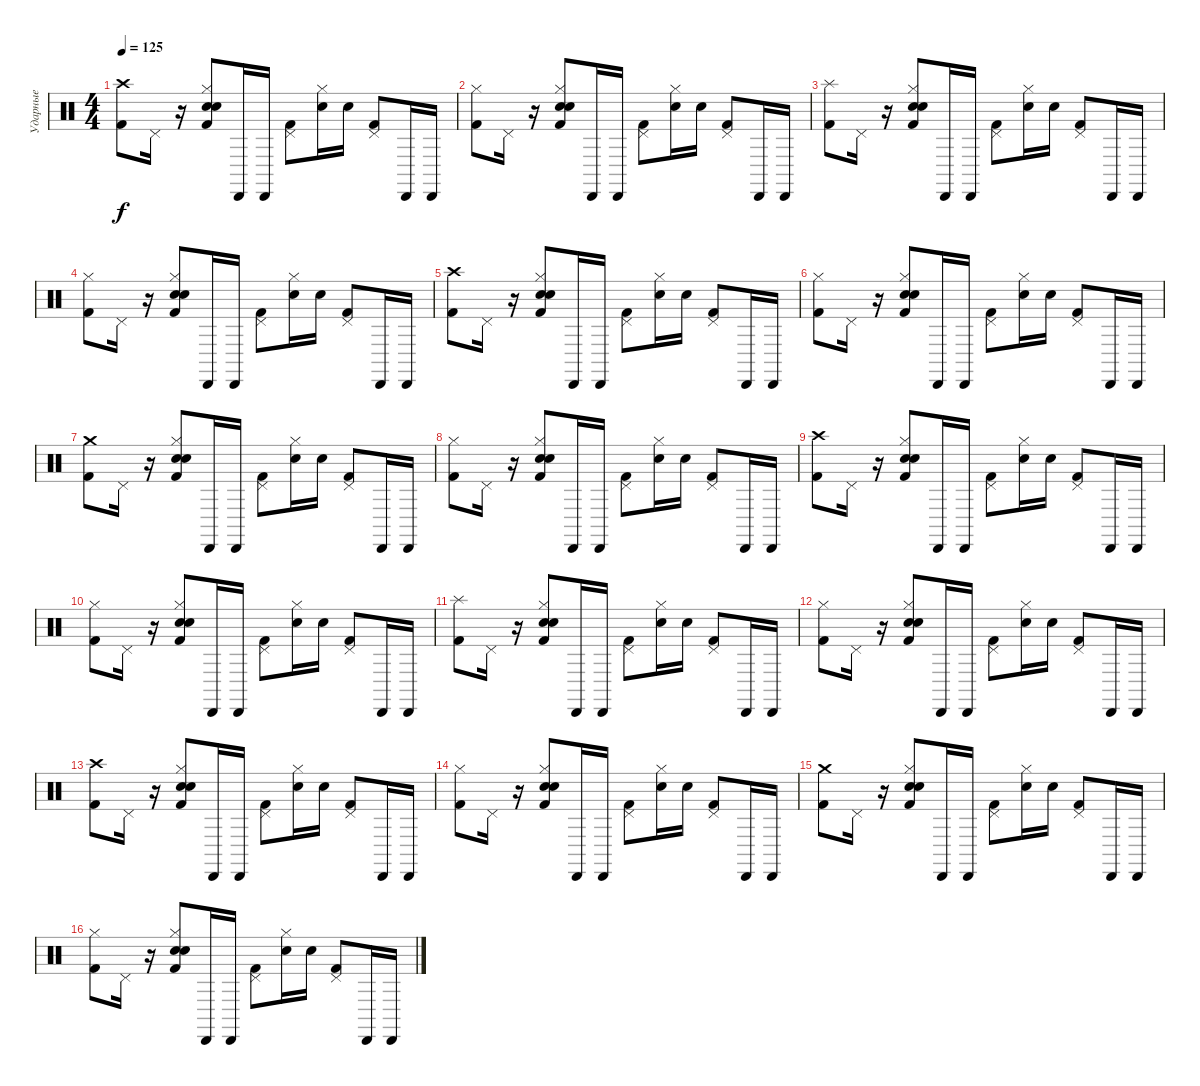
\track ("Ударные" "Ударные") {instrument percussion}
\staff {score}
\articulation defaults
\ts (4 4)
\tempo 125
\clef neutral
\ks c
("Crash high (hit)" "Kick (hit) 2").8{dy f} "Pedal Hi-Hat (hit)".16 r.16 ("Hi-Hat (closed)" "Electric Snare (hit)" "Snare (hit) 2" "Kick (hit) 2").8 "Cabasa (hit)".16 "Cabasa (hit)".16 ("Pedal Hi-Hat (hit)" "Kick (hit) 2").8 ("Hi-Hat (closed)" "Snare (hit) 2").16 "Snare (hit) 2".16 ("Pedal Hi-Hat (hit)" "Kick (hit) 2").8 "Cabasa (hit)".16 "Cabasa (hit)".16 |
("Hi-Hat (closed)" "Kick (hit) 2").8 "Pedal Hi-Hat (hit)".16 r.16 ("Hi-Hat (closed)" "Electric Snare (hit)" "Snare (hit) 2" "Kick (hit) 2").8 "Cabasa (hit)".16 "Cabasa (hit)".16 ("Pedal Hi-Hat (hit)" "Kick (hit) 2").8 ("Hi-Hat (closed)" "Snare (hit) 2").16 "Snare (hit) 2".16 ("Pedal Hi-Hat (hit)" "Kick (hit) 2").8 "Cabasa (hit)".16 "Cabasa (hit)".16 |
("Splash (hit)" "Kick (hit) 2").8 "Pedal Hi-Hat (hit)".16 r.16 ("Hi-Hat (closed)" "Electric Snare (hit)" "Snare (hit) 2" "Kick (hit) 2").8 "Cabasa (hit)".16 "Cabasa (hit)".16 ("Pedal Hi-Hat (hit)" "Kick (hit) 2").8 ("Hi-Hat (closed)" "Snare (hit) 2").16 "Snare (hit) 2".16 ("Pedal Hi-Hat (hit)" "Kick (hit) 2").8 "Cabasa (hit)".16 "Cabasa (hit)".16 |
("Hi-Hat (closed)" "Kick (hit) 2").8 "Pedal Hi-Hat (hit)".16 r.16 ("Hi-Hat (closed)" "Electric Snare (hit)" "Snare (hit) 2" "Kick (hit) 2").8 "Cabasa (hit)".16 "Cabasa (hit)".16 ("Pedal Hi-Hat (hit)" "Kick (hit) 2").8 ("Hi-Hat (closed)" "Snare (hit) 2").16 "Snare (hit) 2".16 ("Pedal Hi-Hat (hit)" "Kick (hit) 2").8 "Cabasa (hit)".16 "Cabasa (hit)".16 |
("Crash high (hit)" "Kick (hit) 2").8 "Pedal Hi-Hat (hit)".16 r.16 ("Hi-Hat (closed)" "Electric Snare (hit)" "Snare (hit) 2" "Kick (hit) 2").8 "Cabasa (hit)".16 "Cabasa (hit)".16 ("Pedal Hi-Hat (hit)" "Kick (hit) 2").8 ("Hi-Hat (closed)" "Snare (hit) 2").16 "Snare (hit) 2".16 ("Pedal Hi-Hat (hit)" "Kick (hit) 2").8 "Cabasa (hit)".16 "Cabasa (hit)".16 |
("Hi-Hat (closed)" "Kick (hit) 2").8 "Pedal Hi-Hat (hit)".16 r.16 ("Hi-Hat (closed)" "Electric Snare (hit)" "Snare (hit) 2" "Kick (hit) 2").8 "Cabasa (hit)".16 "Cabasa (hit)".16 ("Pedal Hi-Hat (hit)" "Kick (hit) 2").8 ("Hi-Hat (closed)" "Snare (hit) 2").16 "Snare (hit) 2".16 ("Pedal Hi-Hat (hit)" "Kick (hit) 2").8 "Cabasa (hit)".16 "Cabasa (hit)".16 |
("Crash medium (hit)" "Kick (hit) 2").8 "Pedal Hi-Hat (hit)".16 r.16 ("Hi-Hat (closed)" "Electric Snare (hit)" "Snare (hit) 2" "Kick (hit) 2").8 "Cabasa (hit)".16 "Cabasa (hit)".16 ("Pedal Hi-Hat (hit)" "Kick (hit) 2").8 ("Hi-Hat (closed)" "Snare (hit) 2").16 "Snare (hit) 2".16 ("Pedal Hi-Hat (hit)" "Kick (hit) 2").8 "Cabasa (hit)".16 "Cabasa (hit)".16 |
("Hi-Hat (closed)" "Kick (hit) 2").8 "Pedal Hi-Hat (hit)".16 r.16 ("Hi-Hat (closed)" "Electric Snare (hit)" "Snare (hit) 2" "Kick (hit) 2").8 "Cabasa (hit)".16 "Cabasa (hit)".16 ("Pedal Hi-Hat (hit)" "Kick (hit) 2").8 ("Hi-Hat (closed)" "Snare (hit) 2").16 "Snare (hit) 2".16 ("Pedal Hi-Hat (hit)" "Kick (hit) 2").8 "Cabasa (hit)".16 "Cabasa (hit)".16 |
("Crash high (hit)" "Kick (hit) 2").8 "Pedal Hi-Hat (hit)".16 r.16 ("Hi-Hat (closed)" "Electric Snare (hit)" "Snare (hit) 2" "Kick (hit) 2").8 "Cabasa (hit)".16 "Cabasa (hit)".16 ("Pedal Hi-Hat (hit)" "Kick (hit) 2").8 ("Hi-Hat (closed)" "Snare (hit) 2").16 "Snare (hit) 2".16 ("Pedal Hi-Hat (hit)" "Kick (hit) 2").8 "Cabasa (hit)".16 "Cabasa (hit)".16 |
("Hi-Hat (closed)" "Kick (hit) 2").8 "Pedal Hi-Hat (hit)".16 r.16 ("Hi-Hat (closed)" "Electric Snare (hit)" "Snare (hit) 2" "Kick (hit) 2").8 "Cabasa (hit)".16 "Cabasa (hit)".16 ("Pedal Hi-Hat (hit)" "Kick (hit) 2").8 ("Hi-Hat (closed)" "Snare (hit) 2").16 "Snare (hit) 2".16 ("Pedal Hi-Hat (hit)" "Kick (hit) 2").8 "Cabasa (hit)".16 "Cabasa (hit)".16 |
("Splash (hit)" "Kick (hit) 2").8 "Pedal Hi-Hat (hit)".16 r.16 ("Hi-Hat (closed)" "Electric Snare (hit)" "Snare (hit) 2" "Kick (hit) 2").8 "Cabasa (hit)".16 "Cabasa (hit)".16 ("Pedal Hi-Hat (hit)" "Kick (hit) 2").8 ("Hi-Hat (closed)" "Snare (hit) 2").16 "Snare (hit) 2".16 ("Pedal Hi-Hat (hit)" "Kick (hit) 2").8 "Cabasa (hit)".16 "Cabasa (hit)".16 |
("Hi-Hat (closed)" "Kick (hit) 2").8 "Pedal Hi-Hat (hit)".16 r.16 ("Hi-Hat (closed)" "Electric Snare (hit)" "Snare (hit) 2" "Kick (hit) 2").8 "Cabasa (hit)".16 "Cabasa (hit)".16 ("Pedal Hi-Hat (hit)" "Kick (hit) 2").8 ("Hi-Hat (closed)" "Snare (hit) 2").16 "Snare (hit) 2".16 ("Pedal Hi-Hat (hit)" "Kick (hit) 2").8 "Cabasa (hit)".16 "Cabasa (hit)".16 |
("Crash high (hit)" "Kick (hit) 2").8 "Pedal Hi-Hat (hit)".16 r.16 ("Hi-Hat (closed)" "Electric Snare (hit)" "Snare (hit) 2" "Kick (hit) 2").8 "Cabasa (hit)".16 "Cabasa (hit)".16 ("Pedal Hi-Hat (hit)" "Kick (hit) 2").8 ("Hi-Hat (closed)" "Snare (hit) 2").16 "Snare (hit) 2".16 ("Pedal Hi-Hat (hit)" "Kick (hit) 2").8 "Cabasa (hit)".16 "Cabasa (hit)".16 |
("Hi-Hat (closed)" "Kick (hit) 2").8 "Pedal Hi-Hat (hit)".16 r.16 ("Hi-Hat (closed)" "Electric Snare (hit)" "Snare (hit) 2" "Kick (hit) 2").8 "Cabasa (hit)".16 "Cabasa (hit)".16 ("Pedal Hi-Hat (hit)" "Kick (hit) 2").8 ("Hi-Hat (closed)" "Snare (hit) 2").16 "Snare (hit) 2".16 ("Pedal Hi-Hat (hit)" "Kick (hit) 2").8 "Cabasa (hit)".16 "Cabasa (hit)".16 |
("Crash medium (hit)" "Kick (hit) 2").8 "Pedal Hi-Hat (hit)".16 r.16 ("Hi-Hat (closed)" "Electric Snare (hit)" "Snare (hit) 2" "Kick (hit) 2").8 "Cabasa (hit)".16 "Cabasa (hit)".16 ("Pedal Hi-Hat (hit)" "Kick (hit) 2").8 ("Hi-Hat (closed)" "Snare (hit) 2").16 "Snare (hit) 2".16 ("Pedal Hi-Hat (hit)" "Kick (hit) 2").8 "Cabasa (hit)".16 "Cabasa (hit)".16 |
("Hi-Hat (closed)" "Kick (hit) 2").8 "Pedal Hi-Hat (hit)".16 r.16 ("Hi-Hat (closed)" "Electric Snare (hit)" "Snare (hit) 2" "Kick (hit) 2").8 "Cabasa (hit)".16 "Cabasa (hit)".16 ("Pedal Hi-Hat (hit)" "Kick (hit) 2").8 ("Hi-Hat (closed)" "Snare (hit) 2").16 "Snare (hit) 2".16 ("Pedal Hi-Hat (hit)" "Kick (hit) 2").8 "Cabasa (hit)".16 "Cabasa (hit)".16
